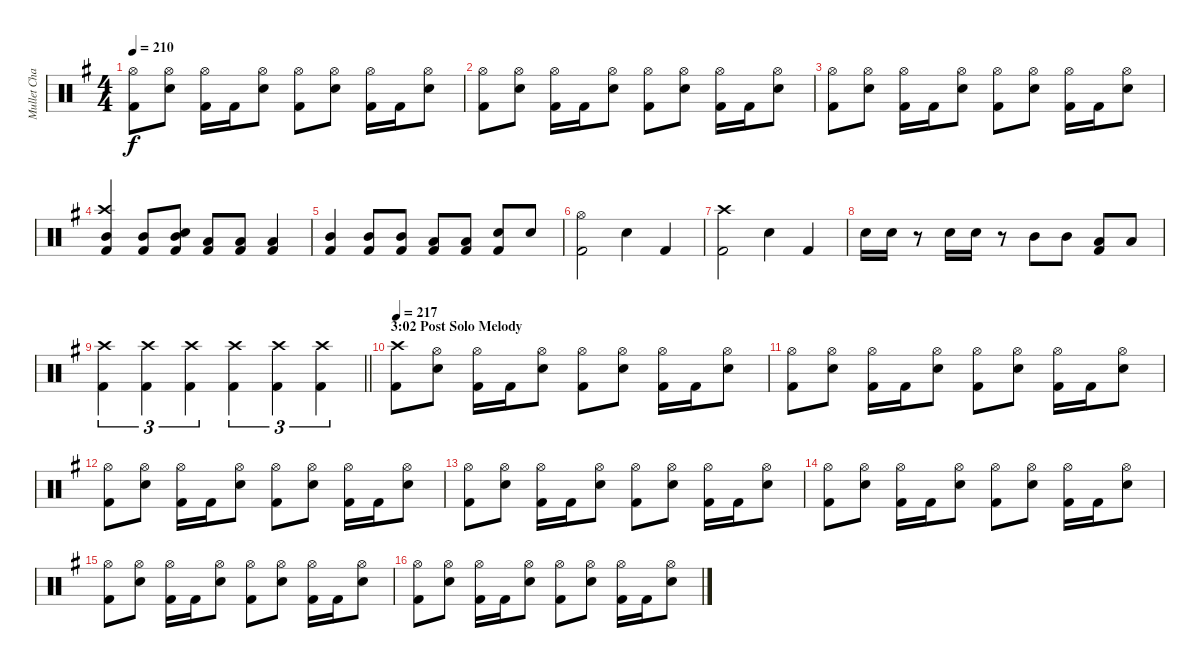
\track ("Mullet Chad" "Mullet Cha") {instrument percussion}
\staff {score}
\articulation defaults
\ts (4 4)
\tempo 210
\clef neutral
\ks g
("Hi-Hat (open)" "Kick (hit) 2").8{dy f} ("Hi-Hat (open)" "Snare (hit) 2").8 ("Hi-Hat (open)" "Kick (hit) 2").16 "Kick (hit) 2".16 ("Hi-Hat (open)" "Snare (hit) 2").8 ("Hi-Hat (open)" "Kick (hit) 2").8 ("Hi-Hat (open)" "Snare (hit) 2").8 ("Hi-Hat (open)" "Kick (hit) 2").16 "Kick (hit) 2".16 ("Hi-Hat (open)" "Snare (hit) 2").8 |
("Hi-Hat (open)" "Kick (hit) 2").8 ("Hi-Hat (open)" "Snare (hit) 2").8 ("Hi-Hat (open)" "Kick (hit) 2").16 "Kick (hit) 2".16 ("Hi-Hat (open)" "Snare (hit) 2").8 ("Hi-Hat (open)" "Kick (hit) 2").8 ("Hi-Hat (open)" "Snare (hit) 2").8 ("Hi-Hat (open)" "Kick (hit) 2").16 "Kick (hit) 2".16 ("Hi-Hat (open)" "Snare (hit) 2").8 |
("Hi-Hat (open)" "Kick (hit) 2").8 ("Hi-Hat (open)" "Snare (hit) 2").8 ("Hi-Hat (open)" "Kick (hit) 2").16 "Kick (hit) 2".16 ("Hi-Hat (open)" "Snare (hit) 2").8 ("Hi-Hat (open)" "Kick (hit) 2").8 ("Hi-Hat (open)" "Snare (hit) 2").8 ("Hi-Hat (open)" "Kick (hit) 2").16 "Kick (hit) 2".16 ("Hi-Hat (open)" "Snare (hit) 2").8 |
("Crash high (hit)" "Mid Tom (hit)" "Kick (hit) 2").4 ("Mid Tom (hit)" "Kick (hit) 2").8 ("Snare (hit) 2" "Mid Tom (hit)" "Kick (hit) 2").8 ("Low Tom (hit)" "Kick (hit) 2").8 ("Low Tom (hit)" "Kick (hit) 2").8 ("Low Tom (hit)" "Kick (hit) 2").4 |
("Mid Tom (hit)" "Kick (hit) 2").4 ("Mid Tom (hit)" "Kick (hit) 2").8 ("Mid Tom (hit)" "Kick (hit) 2").8 ("Low Tom (hit)" "Kick (hit) 2").8 ("Low Tom (hit)" "Kick (hit) 2").8 ("Snare (hit) 2" "Kick (hit) 2").8 "Snare (hit) 2".8 |
("Hi-Hat (open)" "Kick (hit) 2").2 "Snare (hit) 2".4 "Kick (hit) 2".4 |
("Crash high (hit)" "Kick (hit) 2").2 "Snare (hit) 2".4 "Kick (hit) 2".4 |
"Snare (hit) 2".16 "Snare (hit) 2".16 r.8 "Snare (hit) 2".16 "Snare (hit) 2".16 r.8 "Mid Tom (hit)".8 "Mid Tom (hit)".8 ("Low Tom (hit)" "Kick (hit) 2").8 "Low Tom (hit)".8 |
\barLineRight lightlight
("Crash high (hit)" "Kick (hit) 2").4{tu (3 2)} ("Crash high (hit)" "Kick (hit) 2").4{tu (3 2)} ("Crash high (hit)" "Kick (hit) 2").4{tu (3 2)} ("Crash high (hit)" "Kick (hit) 2").4{tu (3 2)} ("Crash high (hit)" "Kick (hit) 2").4{tu (3 2)} ("Crash high (hit)" "Kick (hit) 2").4{tu (3 2)} |
\section ("" "3:02 Post Solo Melody")
\tempo 217
("Crash high (hit)" "Kick (hit) 2").8 ("Hi-Hat (open)" "Snare (hit) 2").8 ("Hi-Hat (open)" "Kick (hit) 2").16 "Kick (hit) 2".16 ("Hi-Hat (open)" "Snare (hit) 2").8 ("Hi-Hat (open)" "Kick (hit) 2").8 ("Hi-Hat (open)" "Snare (hit) 2").8 ("Hi-Hat (open)" "Kick (hit) 2").16 "Kick (hit) 2".16 ("Hi-Hat (open)" "Snare (hit) 2").8 |
("Hi-Hat (open)" "Kick (hit) 2").8 ("Hi-Hat (open)" "Snare (hit) 2").8 ("Hi-Hat (open)" "Kick (hit) 2").16 "Kick (hit) 2".16 ("Hi-Hat (open)" "Snare (hit) 2").8 ("Hi-Hat (open)" "Kick (hit) 2").8 ("Hi-Hat (open)" "Snare (hit) 2").8 ("Hi-Hat (open)" "Kick (hit) 2").16 "Kick (hit) 2".16 ("Hi-Hat (open)" "Snare (hit) 2").8 |
("Hi-Hat (open)" "Kick (hit) 2").8 ("Hi-Hat (open)" "Snare (hit) 2").8 ("Hi-Hat (open)" "Kick (hit) 2").16 "Kick (hit) 2".16 ("Hi-Hat (open)" "Snare (hit) 2").8 ("Hi-Hat (open)" "Kick (hit) 2").8 ("Hi-Hat (open)" "Snare (hit) 2").8 ("Hi-Hat (open)" "Kick (hit) 2").16 "Kick (hit) 2".16 ("Hi-Hat (open)" "Snare (hit) 2").8 |
("Hi-Hat (open)" "Kick (hit) 2").8 ("Hi-Hat (open)" "Snare (hit) 2").8 ("Hi-Hat (open)" "Kick (hit) 2").16 "Kick (hit) 2".16 ("Hi-Hat (open)" "Snare (hit) 2").8 ("Hi-Hat (open)" "Kick (hit) 2").8 ("Hi-Hat (open)" "Snare (hit) 2").8 ("Hi-Hat (open)" "Kick (hit) 2").16 "Kick (hit) 2".16 ("Hi-Hat (open)" "Snare (hit) 2").8 |
("Hi-Hat (open)" "Kick (hit) 2").8 ("Hi-Hat (open)" "Snare (hit) 2").8 ("Hi-Hat (open)" "Kick (hit) 2").16 "Kick (hit) 2".16 ("Hi-Hat (open)" "Snare (hit) 2").8 ("Hi-Hat (open)" "Kick (hit) 2").8 ("Hi-Hat (open)" "Snare (hit) 2").8 ("Hi-Hat (open)" "Kick (hit) 2").16 "Kick (hit) 2".16 ("Hi-Hat (open)" "Snare (hit) 2").8 |
("Hi-Hat (open)" "Kick (hit) 2").8 ("Hi-Hat (open)" "Snare (hit) 2").8 ("Hi-Hat (open)" "Kick (hit) 2").16 "Kick (hit) 2".16 ("Hi-Hat (open)" "Snare (hit) 2").8 ("Hi-Hat (open)" "Kick (hit) 2").8 ("Hi-Hat (open)" "Snare (hit) 2").8 ("Hi-Hat (open)" "Kick (hit) 2").16 "Kick (hit) 2".16 ("Hi-Hat (open)" "Snare (hit) 2").8 |
("Hi-Hat (open)" "Kick (hit) 2").8 ("Hi-Hat (open)" "Snare (hit) 2").8 ("Hi-Hat (open)" "Kick (hit) 2").16 "Kick (hit) 2".16 ("Hi-Hat (open)" "Snare (hit) 2").8 ("Hi-Hat (open)" "Kick (hit) 2").8 ("Hi-Hat (open)" "Snare (hit) 2").8 ("Hi-Hat (open)" "Kick (hit) 2").16 "Kick (hit) 2".16 ("Hi-Hat (open)" "Snare (hit) 2").8
